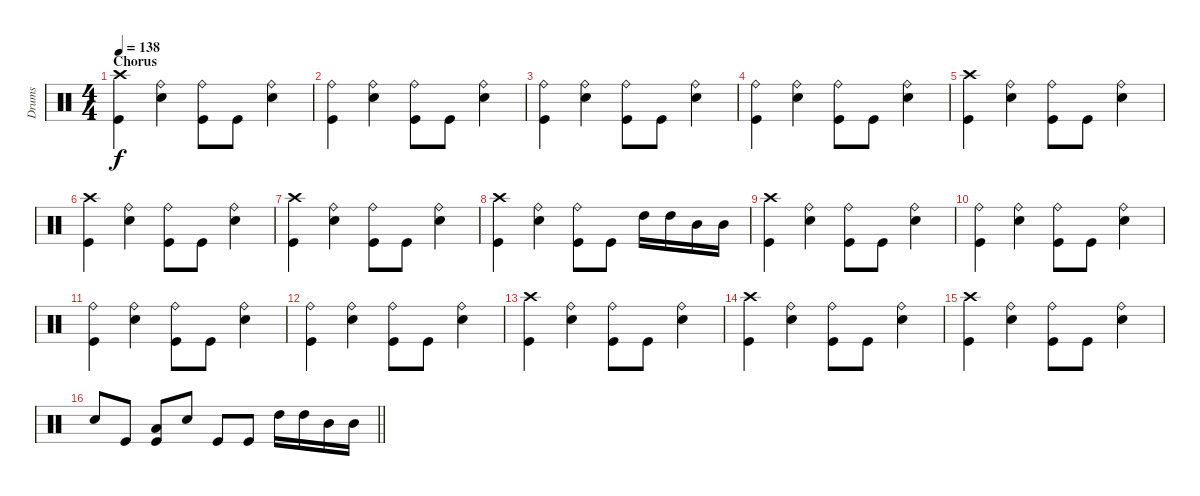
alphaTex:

\track ("Drums" "Drums") {instrument percussion}
\staff {score}
\articulation defaults
\ts (4 4)
\section ("" "Chorus ")
\tempo 138
\clef neutral
\ks c
("Crash high (hit)" "Kick (hit)").4{dy f} ("Ride (bell)" "Electric Snare (hit)").4 ("Ride (bell)" "Kick (hit)").8 "Kick (hit)".8 ("Ride (bell)" "Electric Snare (hit)").4 |
("Ride (bell)" "Kick (hit)").4 ("Ride (bell)" "Electric Snare (hit)").4 ("Ride (bell)" "Kick (hit)").8 "Kick (hit)".8 ("Ride (bell)" "Electric Snare (hit)").4 |
("Ride (bell)" "Kick (hit)").4 ("Ride (bell)" "Electric Snare (hit)").4 ("Ride (bell)" "Kick (hit)").8 "Kick (hit)".8 ("Ride (bell)" "Electric Snare (hit)").4 |
("Ride (bell)" "Kick (hit)").4 ("Ride (bell)" "Electric Snare (hit)").4 ("Ride (bell)" "Kick (hit)").8 "Kick (hit)".8 ("Ride (bell)" "Electric Snare (hit)").4 |
("Crash high (hit)" "Kick (hit)").4 ("Ride (bell)" "Electric Snare (hit)").4 ("Ride (bell)" "Kick (hit)").8 "Kick (hit)".8 ("Ride (bell)" "Electric Snare (hit)").4 |
("Crash high (hit)" "Kick (hit)").4 ("Ride (bell)" "Electric Snare (hit)").4 ("Ride (bell)" "Kick (hit)").8 "Kick (hit)".8 ("Ride (bell)" "Electric Snare (hit)").4 |
("Crash high (hit)" "Kick (hit)").4 ("Ride (bell)" "Electric Snare (hit)").4 ("Ride (bell)" "Kick (hit)").8 "Kick (hit)".8 ("Ride (bell)" "Electric Snare (hit)").4 |
("Crash high (hit)" "Kick (hit)").4 ("Ride (bell)" "Electric Snare (hit)").4 ("Ride (bell)" "Kick (hit)").8 "Kick (hit)".8 "High Tom (hit)".16 "High Tom (hit)".16 "Mid Tom (hit)".16 "Mid Tom (hit)".16 |
("Crash high (hit)" "Kick (hit)").4 ("Ride (bell)" "Electric Snare (hit)").4 ("Ride (bell)" "Kick (hit)").8 "Kick (hit)".8 ("Ride (bell)" "Electric Snare (hit)").4 |
("Ride (bell)" "Kick (hit)").4 ("Ride (bell)" "Electric Snare (hit)").4 ("Ride (bell)" "Kick (hit)").8 "Kick (hit)".8 ("Ride (bell)" "Electric Snare (hit)").4 |
("Ride (bell)" "Kick (hit)").4 ("Ride (bell)" "Electric Snare (hit)").4 ("Ride (bell)" "Kick (hit)").8 "Kick (hit)".8 ("Ride (bell)" "Electric Snare (hit)").4 |
("Ride (bell)" "Kick (hit)").4 ("Ride (bell)" "Electric Snare (hit)").4 ("Ride (bell)" "Kick (hit)").8 "Kick (hit)".8 ("Ride (bell)" "Electric Snare (hit)").4 |
("Crash high (hit)" "Kick (hit)").4 ("Ride (bell)" "Electric Snare (hit)").4 ("Ride (bell)" "Kick (hit)").8 "Kick (hit)".8 ("Ride (bell)" "Electric Snare (hit)").4 |
("Crash high (hit)" "Kick (hit)").4 ("Ride (bell)" "Electric Snare (hit)").4 ("Ride (bell)" "Kick (hit)").8 "Kick (hit)".8 ("Ride (bell)" "Electric Snare (hit)").4 |
("Crash high (hit)" "Kick (hit)").4 ("Ride (bell)" "Electric Snare (hit)").4 ("Ride (bell)" "Kick (hit)").8 "Kick (hit)".8 ("Ride (bell)" "Electric Snare (hit)").4 |
\barLineRight lightlight "Electric Snare (hit)".8 "Kick (hit)".8
("Low Floor Tom (hit)" "Kick (hit)").8 "Electric Snare (hit)".8 "Kick (hit)".8 "Kick (hit)".8 "High Tom (hit)".16 "High Tom (hit)".16 "Mid Tom (hit)".16 "Mid Tom (hit)".16
